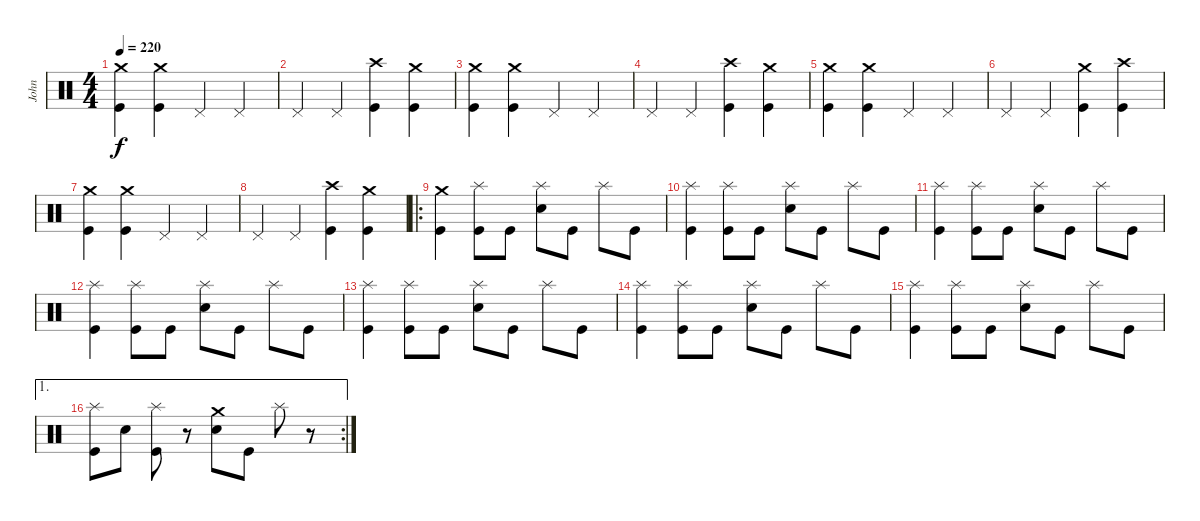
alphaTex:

\track ("John" "John") {instrument percussion}
\staff {score}
\articulation defaults
\ts (4 4)
\tempo 220
\clef neutral
\ks c
("Crash medium (hit)" "Kick (hit)").4{dy f} ("Crash medium (hit)" "Kick (hit)").4 "Pedal Hi-Hat (hit)".4 "Pedal Hi-Hat (hit)".4 |
"Pedal Hi-Hat (hit)".4 "Pedal Hi-Hat (hit)".4 ("Crash high (hit)" "Kick (hit)").4 ("Crash medium (hit)" "Kick (hit)").4 |
("Crash medium (hit)" "Kick (hit)").4 ("Crash medium (hit)" "Kick (hit)").4 "Pedal Hi-Hat (hit)".4 "Pedal Hi-Hat (hit)".4 |
"Pedal Hi-Hat (hit)".4 "Pedal Hi-Hat (hit)".4 ("Crash high (hit)" "Kick (hit)").4 ("Crash medium (hit)" "Kick (hit)").4 |
("Crash medium (hit)" "Kick (hit)").4 ("Crash medium (hit)" "Kick (hit)").4 "Pedal Hi-Hat (hit)".4 "Pedal Hi-Hat (hit)".4 |
"Pedal Hi-Hat (hit)".4 "Pedal Hi-Hat (hit)".4 ("Crash medium (hit)" "Kick (hit)").4 ("Crash high (hit)" "Kick (hit)").4 |
("Crash medium (hit)" "Kick (hit)").4 ("Crash medium (hit)" "Kick (hit)").4 "Pedal Hi-Hat (hit)".4 "Pedal Hi-Hat (hit)".4 |
"Pedal Hi-Hat (hit)".4 "Pedal Hi-Hat (hit)".4 ("Crash high (hit)" "Kick (hit)").4 ("Crash medium (hit)" "Kick (hit)").4 |
\ro
("Crash medium (hit)" "Kick (hit)").4 ("Splash (hit)" "Kick (hit)").8 "Kick (hit)".8 ("Splash (hit)" "Snare (hit) 2").8 "Kick (hit)".8 "Splash (hit)".8 "Kick (hit)".8 |
("Splash (hit)" "Kick (hit)").4 ("Splash (hit)" "Kick (hit)").8 "Kick (hit)".8 ("Splash (hit)" "Snare (hit) 2").8 "Kick (hit)".8 "Splash (hit)".8 "Kick (hit)".8 |
("Splash (hit)" "Kick (hit)").4 ("Splash (hit)" "Kick (hit)").8 "Kick (hit)".8 ("Splash (hit)" "Snare (hit) 2").8 "Kick (hit)".8 "Splash (hit)".8 "Kick (hit)".8 |
("Splash (hit)" "Kick (hit)").4 ("Splash (hit)" "Kick (hit)").8 "Kick (hit)".8 ("Splash (hit)" "Snare (hit) 2").8 "Kick (hit)".8 "Splash (hit)".8 "Kick (hit)".8 |
("Splash (hit)" "Kick (hit)").4 ("Splash (hit)" "Kick (hit)").8 "Kick (hit)".8 ("Splash (hit)" "Snare (hit) 2").8 "Kick (hit)".8 "Splash (hit)".8 "Kick (hit)".8 |
("Splash (hit)" "Kick (hit)").4 ("Splash (hit)" "Kick (hit)").8 "Kick (hit)".8 ("Splash (hit)" "Snare (hit) 2").8 "Kick (hit)".8 "Splash (hit)".8 "Kick (hit)".8 |
("Splash (hit)" "Kick (hit)").4 ("Splash (hit)" "Kick (hit)").8 "Kick (hit)".8 ("Splash (hit)" "Snare (hit) 2").8 "Kick (hit)".8 "Splash (hit)".8 "Kick (hit)".8 |
\ae 1
\rc 2
("Splash (hit)" "Kick (hit)").8 "Snare (hit) 2".8 ("Splash (hit)" "Kick (hit)").8 r.8 ("Crash medium (hit)" "Snare (hit) 2").8 "Kick (hit)".8 "Splash (hit)".8 r.8
